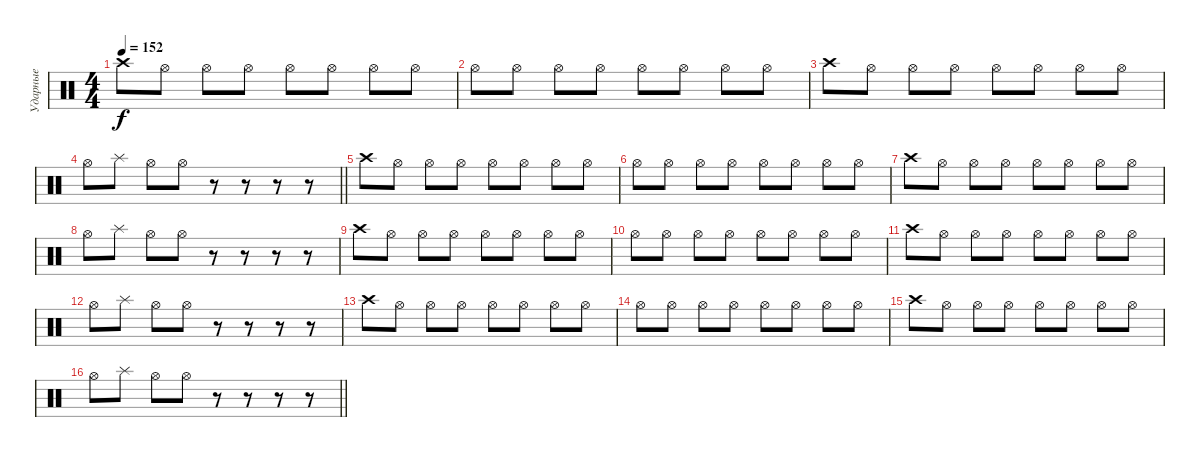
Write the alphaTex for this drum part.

\track ("Ударные" "Ударные") {instrument percussion}
\staff {score}
\articulation defaults
\ts (4 4)
\tempo 152
\clef neutral
\ks c "Crash high (hit)".8{dy f} "Hi-Hat (open)".8 "Hi-Hat (open)".8 "Hi-Hat (open)".8 "Hi-Hat (open)".8 "Hi-Hat (open)".8 "Hi-Hat (open)".8 "Hi-Hat (open)".8
|
"Hi-Hat (open)".8 "Hi-Hat (open)".8 "Hi-Hat (open)".8 "Hi-Hat (open)".8 "Hi-Hat (open)".8 "Hi-Hat (open)".8 "Hi-Hat (open)".8 "Hi-Hat (open)".8 |
"Crash high (hit)".8 "Hi-Hat (open)".8 "Hi-Hat (open)".8 "Hi-Hat (open)".8 "Hi-Hat (open)".8 "Hi-Hat (open)".8 "Hi-Hat (open)".8 "Hi-Hat (open)".8 |
\barLineRight lightlight "Hi-Hat (open)".8 "Splash (hit)".8 "Hi-Hat (open)".8 "Hi-Hat (open)".8
r.8 r.8 r.8 r.8 |
"Crash high (hit)".8 "Hi-Hat (open)".8 "Hi-Hat (open)".8 "Hi-Hat (open)".8 "Hi-Hat (open)".8 "Hi-Hat (open)".8 "Hi-Hat (open)".8 "Hi-Hat (open)".8 |
"Hi-Hat (open)".8 "Hi-Hat (open)".8 "Hi-Hat (open)".8 "Hi-Hat (open)".8 "Hi-Hat (open)".8 "Hi-Hat (open)".8 "Hi-Hat (open)".8 "Hi-Hat (open)".8 |
"Crash high (hit)".8 "Hi-Hat (open)".8 "Hi-Hat (open)".8 "Hi-Hat (open)".8 "Hi-Hat (open)".8 "Hi-Hat (open)".8 "Hi-Hat (open)".8 "Hi-Hat (open)".8 |
"Hi-Hat (open)".8 "Splash (hit)".8 "Hi-Hat (open)".8 "Hi-Hat (open)".8 r.8 r.8 r.8 r.8 |
"Crash high (hit)".8 "Hi-Hat (open)".8 "Hi-Hat (open)".8 "Hi-Hat (open)".8 "Hi-Hat (open)".8 "Hi-Hat (open)".8 "Hi-Hat (open)".8 "Hi-Hat (open)".8 |
"Hi-Hat (open)".8 "Hi-Hat (open)".8 "Hi-Hat (open)".8 "Hi-Hat (open)".8 "Hi-Hat (open)".8 "Hi-Hat (open)".8 "Hi-Hat (open)".8 "Hi-Hat (open)".8 |
"Crash high (hit)".8 "Hi-Hat (open)".8 "Hi-Hat (open)".8 "Hi-Hat (open)".8 "Hi-Hat (open)".8 "Hi-Hat (open)".8 "Hi-Hat (open)".8 "Hi-Hat (open)".8 |
"Hi-Hat (open)".8 "Splash (hit)".8 "Hi-Hat (open)".8 "Hi-Hat (open)".8 r.8 r.8 r.8 r.8 |
"Crash high (hit)".8 "Hi-Hat (open)".8 "Hi-Hat (open)".8 "Hi-Hat (open)".8 "Hi-Hat (open)".8 "Hi-Hat (open)".8 "Hi-Hat (open)".8 "Hi-Hat (open)".8 |
"Hi-Hat (open)".8 "Hi-Hat (open)".8 "Hi-Hat (open)".8 "Hi-Hat (open)".8 "Hi-Hat (open)".8 "Hi-Hat (open)".8 "Hi-Hat (open)".8 "Hi-Hat (open)".8 |
"Crash high (hit)".8 "Hi-Hat (open)".8 "Hi-Hat (open)".8 "Hi-Hat (open)".8 "Hi-Hat (open)".8 "Hi-Hat (open)".8 "Hi-Hat (open)".8 "Hi-Hat (open)".8 |
\barLineRight lightlight "Hi-Hat (open)".8 "Splash (hit)".8 "Hi-Hat (open)".8 "Hi-Hat (open)".8
r.8 r.8 r.8 r.8
